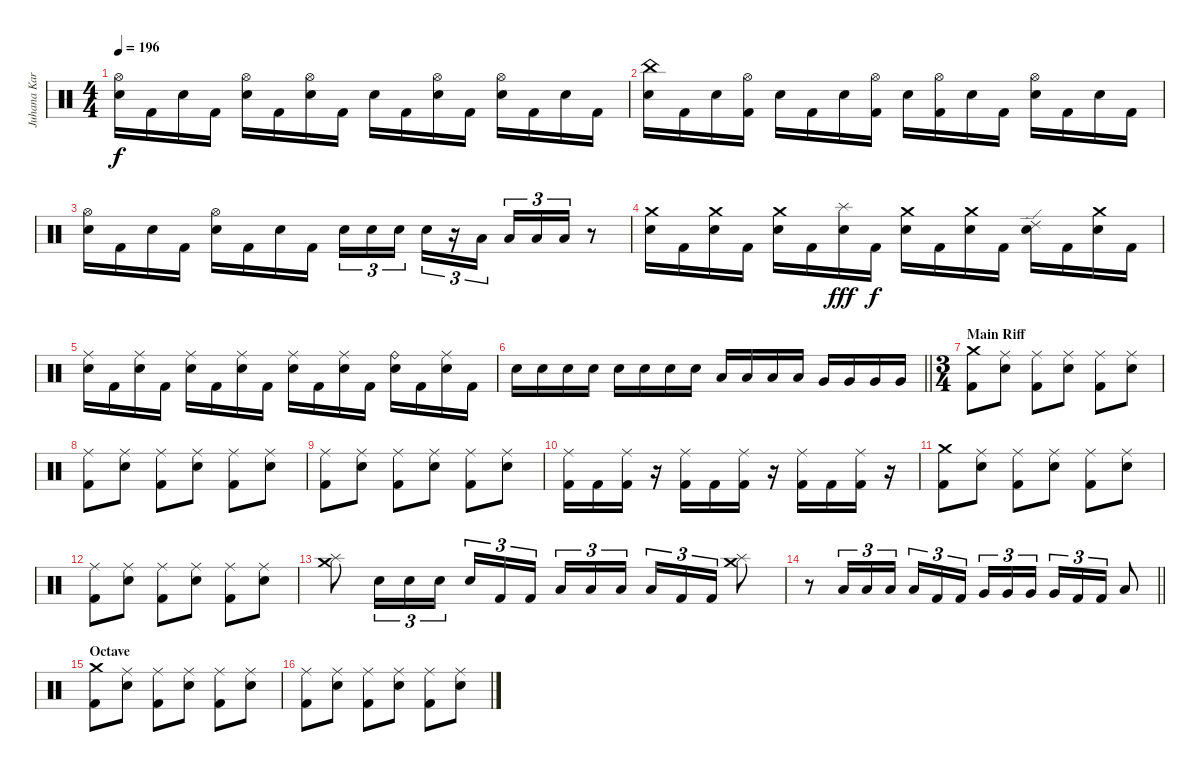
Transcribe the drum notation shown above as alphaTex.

\track ("Juhana Karlsson " "Juhana Kar") {instrument percussion}
\staff {score}
\articulation defaults
\ts (4 4)
\tempo 196
\clef neutral
\ks c
("Hi-Hat (open)" "Electric Snare (hit)").16{dy f} "Kick (hit) 2".16 "Electric Snare (hit)".16 "Kick (hit) 2".16 ("Hi-Hat (open)" "Electric Snare (hit)").16 "Kick (hit) 2".16 ("Hi-Hat (open)" "Electric Snare (hit)").16 "Kick (hit) 2".16 "Electric Snare (hit)".16 "Kick (hit) 2".16 ("Hi-Hat (open)" "Electric Snare (hit)").16 "Kick (hit) 2".16 ("Hi-Hat (open)" "Electric Snare (hit)").16 "Kick (hit) 2".16 "Electric Snare (hit)".16 "Kick (hit) 2".16 |
("China (hit)" "Electric Snare (hit)").16 "Kick (hit) 2".16 "Electric Snare (hit)".16 ("Hi-Hat (open)" "Kick (hit) 2").16 "Electric Snare (hit)".16 "Kick (hit) 2".16 "Electric Snare (hit)".16 ("Hi-Hat (open)" "Kick (hit) 2").16 "Electric Snare (hit)".16 ("Hi-Hat (open)" "Kick (hit) 2").16 "Electric Snare (hit)".16 "Kick (hit) 2".16 ("Hi-Hat (open)" "Electric Snare (hit)").16 "Kick (hit) 2".16 "Electric Snare (hit)".16 "Kick (hit) 2".16 |
("Hi-Hat (open)" "Electric Snare (hit)").16 "Kick (hit) 2".16 "Electric Snare (hit)".16 "Kick (hit) 2".16 ("Hi-Hat (open)" "Electric Snare (hit)").16 "Kick (hit) 2".16 "Electric Snare (hit)".16 "Kick (hit) 2".16 "Electric Snare (hit)".16{tu (3 2)} "Electric Snare (hit)".16{tu (3 2)} "Electric Snare (hit)".16{tu (3 2) beam splitsecondary} "Electric Snare (hit)".16{tu (3 2)} r.16{tu (3 2)} "Low Tom (hit)".16{tu (3 2)} "Low Tom (hit)".16{tu (3 2)} "Low Tom (hit)".16{tu (3 2)} "Low Tom (hit)".16{tu (3 2)} r.8 |
("Crash medium (hit)" "Electric Snare (hit)").16 "Kick (hit) 2".16 ("Crash medium (hit)" "Electric Snare (hit)").16 "Kick (hit) 2".16 ("Crash medium (hit)" "Electric Snare (hit)").16 "Kick (hit) 2".16 ("Splash (hit)" "Electric Snare (hit)").16{dy fff} "Kick (hit) 2".16{dy f} ("Crash medium (hit)" "Electric Snare (hit)").16 "Kick (hit) 2".16 ("Crash medium (hit)" "Electric Snare (hit)").16 "Kick (hit) 2".16 ("Ride (edge) 2" "Electric Snare (hit)").16 "Kick (hit) 2".16 ("Crash medium (hit)" "Electric Snare (hit)").16 "Kick (hit) 2".16 |
("Ride (middle)" "Electric Snare (hit)").16 "Kick (hit) 2".16 ("Ride (middle)" "Electric Snare (hit)").16 "Kick (hit) 2".16 ("Ride (middle)" "Electric Snare (hit)").16 "Kick (hit) 2".16 ("Ride (middle)" "Electric Snare (hit)").16 "Kick (hit) 2".16 ("Ride (middle)" "Electric Snare (hit)").16 "Kick (hit) 2".16 ("Ride (middle)" "Electric Snare (hit)").16 "Kick (hit) 2".16 ("Ride (bell)" "Electric Snare (hit)").16 "Kick (hit) 2".16 ("Ride (middle)" "Electric Snare (hit)").16 "Kick (hit) 2".16 |
\barLineRight lightlight "Electric Snare (hit)".16 "Electric Snare (hit)".16 "Electric Snare (hit)".16 "Electric Snare (hit)".16 "Electric Snare (hit)".16 "Electric Snare (hit)".16 "Electric Snare (hit)".16 "Electric Snare (hit)".16 "Low Tom (hit)".16 "Low Tom (hit)".16 "Low Tom (hit)".16 "Low Tom (hit)".16 "Very Low Tom (hit)".16 "Very Low Tom (hit)".16 "Very Low Tom (hit)".16 "Very Low Tom (hit)".16
|
\ts (3 4)
\section ("" "Main Riff")
("Crash medium (hit)" "Kick (hit) 2").8 ("Ride (middle)" "Electric Snare (hit)").8 ("Ride (middle)" "Kick (hit) 2").8 ("Ride (middle)" "Electric Snare (hit)").8 ("Ride (middle)" "Kick (hit) 2").8 ("Ride (middle)" "Electric Snare (hit)").8 |
("Ride (middle)" "Kick (hit) 2").8 ("Ride (middle)" "Electric Snare (hit)").8 ("Ride (middle)" "Kick (hit) 2").8 ("Ride (middle)" "Electric Snare (hit)").8 ("Ride (middle)" "Kick (hit) 2").8 ("Ride (middle)" "Electric Snare (hit)").8 |
("Ride (middle)" "Kick (hit) 2").8 ("Ride (middle)" "Electric Snare (hit)").8 ("Ride (middle)" "Kick (hit) 2").8 ("Ride (middle)" "Electric Snare (hit)").8 ("Ride (middle)" "Kick (hit) 2").8 ("Ride (middle)" "Electric Snare (hit)").8 |
("Ride (middle)" "Kick (hit) 2").16 "Kick (hit) 2".16 ("Ride (middle)" "Kick (hit) 2").16 r.16 ("Ride (middle)" "Kick (hit) 2").16 "Kick (hit) 2".16 ("Ride (middle)" "Kick (hit) 2").16 r.16 ("Ride (middle)" "Kick (hit) 2").16 "Kick (hit) 2".16 ("Ride (middle)" "Kick (hit) 2").16 r.16 |
("Crash medium (hit)" "Kick (hit) 2").8 ("Ride (middle)" "Electric Snare (hit)").8 ("Ride (middle)" "Kick (hit) 2").8 ("Ride (middle)" "Electric Snare (hit)").8 ("Ride (middle)" "Kick (hit) 2").8 ("Ride (middle)" "Electric Snare (hit)").8 |
("Ride (middle)" "Kick (hit) 2").8 ("Ride (middle)" "Electric Snare (hit)").8 ("Ride (middle)" "Kick (hit) 2").8 ("Ride (middle)" "Electric Snare (hit)").8 ("Ride (middle)" "Kick (hit) 2").8 ("Ride (middle)" "Electric Snare (hit)").8 |
("Splash (hit)" "Crash medium (hit)").8 "Electric Snare (hit)".16{tu (3 2)} "Electric Snare (hit)".16{tu (3 2)} "Electric Snare (hit)".16{tu (3 2)} "Electric Snare (hit)".16{tu (3 2)} "Kick (hit) 2".16{tu (3 2)} "Kick (hit) 2".16{tu (3 2) beam splitsecondary} "Low Tom (hit)".16{tu (3 2)} "Low Tom (hit)".16{tu (3 2)} "Low Tom (hit)".16{tu (3 2)} "Low Tom (hit)".16{tu (3 2)} "Kick (hit) 2".16{tu (3 2)} "Kick (hit) 2".16{tu (3 2)} ("Splash (hit)" "Crash medium (hit)").8 |
\barLineRight lightlight
r.8 "Low Tom (hit)".16{tu (3 2)} "Low Tom (hit)".16{tu (3 2)} "Low Tom (hit)".16{tu (3 2)} "Low Tom (hit)".16{tu (3 2)} "Kick (hit) 2".16{tu (3 2)} "Kick (hit) 2".16{tu (3 2) beam splitsecondary} "Very Low Tom (hit)".16{tu (3 2)} "Very Low Tom (hit)".16{tu (3 2)} "Very Low Tom (hit)".16{tu (3 2)} "Very Low Tom (hit)".16{tu (3 2)} "Kick (hit) 2".16{tu (3 2)} "Kick (hit) 2".16{tu (3 2)} "Low Tom (hit)".8 |
\section ("" "Octave")
("Crash medium (hit)" "Kick (hit) 2").8 ("Ride (middle)" "Electric Snare (hit)").8 ("Ride (middle)" "Kick (hit) 2").8 ("Ride (middle)" "Electric Snare (hit)").8 ("Ride (middle)" "Kick (hit) 2").8 ("Ride (middle)" "Electric Snare (hit)").8 |
("Ride (middle)" "Kick (hit) 2").8 ("Ride (middle)" "Electric Snare (hit)").8 ("Ride (middle)" "Kick (hit) 2").8 ("Ride (middle)" "Electric Snare (hit)").8 ("Ride (middle)" "Kick (hit) 2").8 ("Ride (middle)" "Electric Snare (hit)").8
